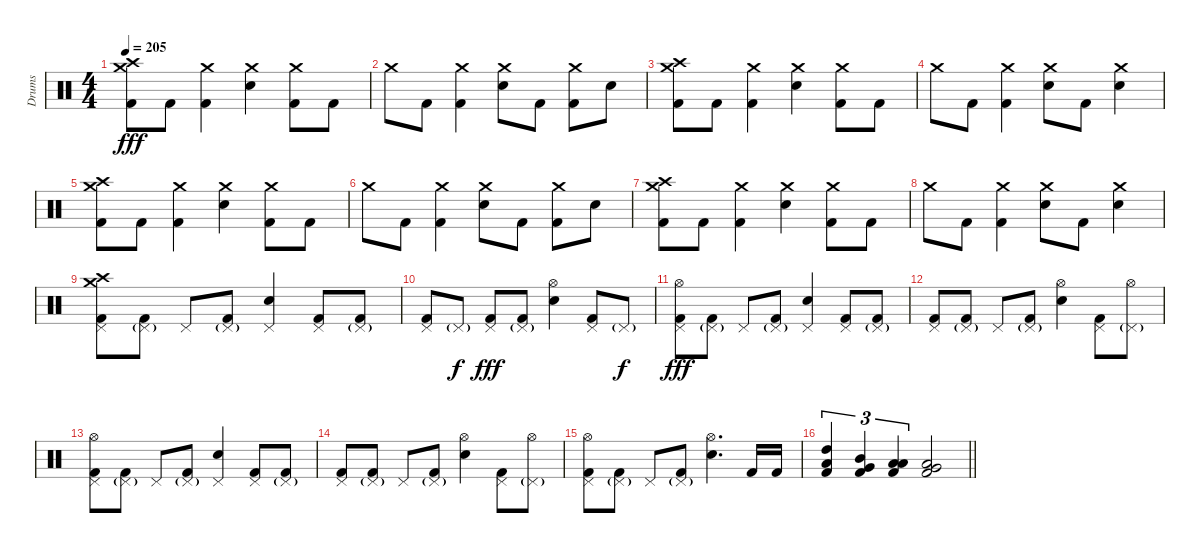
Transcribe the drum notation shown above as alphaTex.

\track ("Drums" "Drums") {instrument percussion}
\staff {score}
\articulation defaults
\ts (4 4)
\tempo 205
\clef neutral
\ks c
("Crash medium (hit)" "Crash high (hit)" "Kick (hit) 2").8{dy fff} "Kick (hit) 2".8 ("Crash medium (hit)" "Kick (hit) 2").4 ("Crash medium (hit)" "Electric Snare (hit)").4 ("Crash medium (hit)" "Kick (hit) 2").8 "Kick (hit) 2".8 |
"Crash medium (hit)".8 "Kick (hit) 2".8 ("Crash medium (hit)" "Kick (hit) 2").4 ("Crash medium (hit)" "Electric Snare (hit)").8 "Kick (hit) 2".8 ("Crash medium (hit)" "Kick (hit) 2").8 "Electric Snare (hit)".8 |
("Crash medium (hit)" "Crash high (hit)" "Kick (hit) 2").8 "Kick (hit) 2".8 ("Crash medium (hit)" "Kick (hit) 2").4 ("Crash medium (hit)" "Electric Snare (hit)").4 ("Crash medium (hit)" "Kick (hit) 2").8 "Kick (hit) 2".8 |
"Crash medium (hit)".8 "Kick (hit) 2".8 ("Crash medium (hit)" "Kick (hit) 2").4 ("Crash medium (hit)" "Electric Snare (hit)").8 "Kick (hit) 2".8 ("Crash medium (hit)" "Electric Snare (hit)").4 |
("Crash medium (hit)" "Crash high (hit)" "Kick (hit) 2").8 "Kick (hit) 2".8 ("Crash medium (hit)" "Kick (hit) 2").4 ("Crash medium (hit)" "Electric Snare (hit)").4 ("Crash medium (hit)" "Kick (hit) 2").8 "Kick (hit) 2".8 |
"Crash medium (hit)".8 "Kick (hit) 2".8 ("Crash medium (hit)" "Kick (hit) 2").4 ("Crash medium (hit)" "Electric Snare (hit)").8 "Kick (hit) 2".8 ("Crash medium (hit)" "Kick (hit) 2").8 "Electric Snare (hit)".8 |
("Crash medium (hit)" "Crash high (hit)" "Kick (hit) 2").8 "Kick (hit) 2".8 ("Crash medium (hit)" "Kick (hit) 2").4 ("Crash medium (hit)" "Electric Snare (hit)").4 ("Crash medium (hit)" "Kick (hit) 2").8 "Kick (hit) 2".8 |
"Crash medium (hit)".8 "Kick (hit) 2".8 ("Crash medium (hit)" "Kick (hit) 2").4 ("Crash medium (hit)" "Electric Snare (hit)").8 "Kick (hit) 2".8 ("Crash medium (hit)" "Electric Snare (hit)").4 |
("Crash medium (hit)" "Crash high (hit)" "Pedal Hi-Hat (hit)" "Kick (hit) 2").8 ("Pedal Hi-Hat (hit)"{g} "Kick (hit) 2").8 "Pedal Hi-Hat (hit)".8 ("Pedal Hi-Hat (hit)"{g} "Kick (hit) 2").8 ("Pedal Hi-Hat (hit)" "Snare (hit) 2").4 ("Pedal Hi-Hat (hit)" "Kick (hit) 2").8 ("Pedal Hi-Hat (hit)"{g} "Kick (hit) 2").8 |
("Pedal Hi-Hat (hit)" "Kick (hit) 2").8 "Pedal Hi-Hat (hit)"{g}.8{dy f} ("Pedal Hi-Hat (hit)" "Kick (hit) 2").8{dy fff} ("Pedal Hi-Hat (hit)"{g} "Kick (hit) 2").8 ("Hi-Hat (open)" "Snare (hit) 2").4 ("Pedal Hi-Hat (hit)" "Kick (hit) 2").8 "Pedal Hi-Hat (hit)"{g}.8{dy f} |
("Hi-Hat (open)" "Pedal Hi-Hat (hit)" "Kick (hit) 2").8{dy fff} ("Pedal Hi-Hat (hit)"{g} "Kick (hit) 2").8 "Pedal Hi-Hat (hit)".8 ("Pedal Hi-Hat (hit)"{g} "Kick (hit) 2").8 ("Pedal Hi-Hat (hit)" "Snare (hit) 2").4 ("Pedal Hi-Hat (hit)" "Kick (hit) 2").8 ("Pedal Hi-Hat (hit)"{g} "Kick (hit) 2").8 |
("Pedal Hi-Hat (hit)" "Kick (hit) 2").8 ("Pedal Hi-Hat (hit)"{g} "Kick (hit) 2").8 "Pedal Hi-Hat (hit)".8 ("Pedal Hi-Hat (hit)"{g} "Kick (hit) 2").8 ("Hi-Hat (open)" "Snare (hit) 2").4 ("Pedal Hi-Hat (hit)" "Kick (hit) 2").8 ("Pedal Hi-Hat (hit)"{g} "Hi-Hat (open)").8 |
("Hi-Hat (open)" "Pedal Hi-Hat (hit)" "Kick (hit) 2").8 ("Pedal Hi-Hat (hit)"{g} "Kick (hit) 2").8 "Pedal Hi-Hat (hit)".8 ("Pedal Hi-Hat (hit)"{g} "Kick (hit) 2").8 ("Pedal Hi-Hat (hit)" "Snare (hit) 2").4 ("Pedal Hi-Hat (hit)" "Kick (hit) 2").8 ("Pedal Hi-Hat (hit)"{g} "Kick (hit) 2").8 |
("Pedal Hi-Hat (hit)" "Kick (hit) 2").8 ("Pedal Hi-Hat (hit)"{g} "Kick (hit) 2").8 "Pedal Hi-Hat (hit)".8 ("Pedal Hi-Hat (hit)"{g} "Kick (hit) 2").8 ("Hi-Hat (open)" "Snare (hit) 2").4 ("Pedal Hi-Hat (hit)" "Kick (hit) 2").8 ("Pedal Hi-Hat (hit)"{g} "Hi-Hat (open)").8 |
("Hi-Hat (open)" "Pedal Hi-Hat (hit)" "Kick (hit) 2").8 ("Pedal Hi-Hat (hit)"{g} "Kick (hit) 2").8 "Pedal Hi-Hat (hit)".8 ("Pedal Hi-Hat (hit)"{g} "Kick (hit) 2").8 ("Hi-Hat (open)" "Snare (hit) 2").4{d} "Kick (hit) 2".16 "Kick (hit) 2".16 |
\barLineRight lightlight
("Low Tom (hit)" "High Tom (hit)" "Kick (hit) 2").4{tu (3 2)} ("Very Low Tom (hit)" "Mid Tom (hit)" "Kick (hit) 2").4{tu (3 2)} ("Low Floor Tom (hit)" "Low Tom (hit)" "Kick (hit) 2").4{tu (3 2)} ("Very Low Tom (hit)" "Low Floor Tom (hit)" "Kick (hit) 2").2
